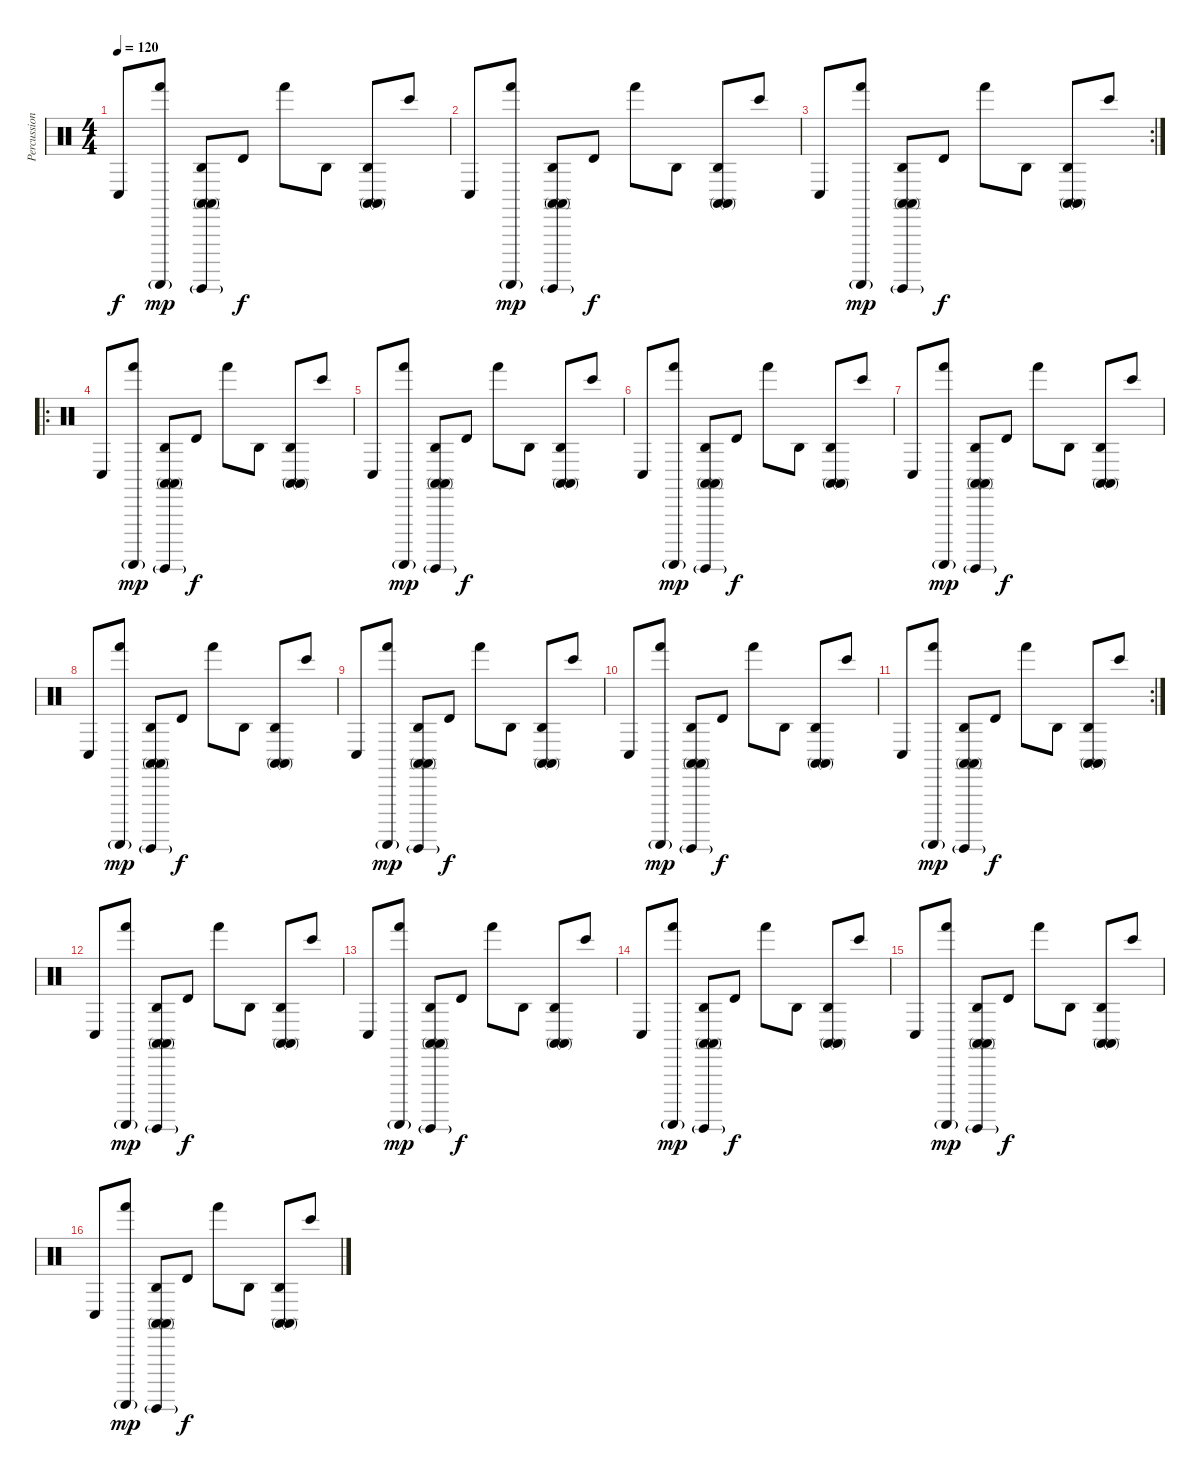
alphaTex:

\track ("Percussions" "Percussion") {instrument percussion}
\staff {score}
\articulation defaults
\ts (4 4)
\tempo 120
\clef neutral
\ks c "Conga low (hit)".8{dy f}
("Hand (hit)" "Guiro (scrap-return)"{g}).8{dy mp} ("Conga high (mute)" "Agogo high (hit)" "Conga high (mute)" "Guiro (hit)"{g}).8 "Timbale high (hit)".8{dy f} "Hand (hit)".8 "Agogo high (hit)".8 ("Agogo high (hit)" "Conga high (mute)" "Conga high (mute)").8 "Bongo High (hit)".8 |
"Conga low (hit)".8 ("Hand (hit)" "Guiro (scrap-return)"{g}).8{dy mp} ("Conga high (mute)" "Agogo high (hit)" "Conga high (mute)" "Guiro (hit)"{g}).8 "Timbale high (hit)".8{dy f} "Hand (hit)".8 "Agogo high (hit)".8 ("Agogo high (hit)" "Conga high (mute)" "Conga high (mute)").8 "Bongo High (hit)".8 |
\rc 2 "Conga low (hit)".8
("Hand (hit)" "Guiro (scrap-return)"{g}).8{dy mp} ("Conga high (mute)" "Agogo high (hit)" "Conga high (mute)" "Guiro (hit)"{g}).8 "Timbale high (hit)".8{dy f} "Hand (hit)".8 "Agogo high (hit)".8 ("Agogo high (hit)" "Conga high (mute)" "Conga high (mute)").8 "Bongo High (hit)".8 |
\ro "Conga low (hit)".8
("Hand (hit)" "Guiro (scrap-return)"{g}).8{dy mp} ("Conga high (mute)" "Agogo high (hit)" "Conga high (mute)" "Guiro (hit)"{g}).8 "Timbale high (hit)".8{dy f} "Hand (hit)".8 "Agogo high (hit)".8 ("Agogo high (hit)" "Conga high (mute)" "Conga high (mute)").8 "Bongo High (hit)".8 |
"Conga low (hit)".8 ("Hand (hit)" "Guiro (scrap-return)"{g}).8{dy mp} ("Conga high (mute)" "Agogo high (hit)" "Conga high (mute)" "Guiro (hit)"{g}).8 "Timbale high (hit)".8{dy f} "Hand (hit)".8 "Agogo high (hit)".8 ("Agogo high (hit)" "Conga high (mute)" "Conga high (mute)").8 "Bongo High (hit)".8 |
"Conga low (hit)".8 ("Hand (hit)" "Guiro (scrap-return)"{g}).8{dy mp} ("Conga high (mute)" "Agogo high (hit)" "Conga high (mute)" "Guiro (hit)"{g}).8 "Timbale high (hit)".8{dy f} "Hand (hit)".8 "Agogo high (hit)".8 ("Agogo high (hit)" "Conga high (mute)" "Conga high (mute)").8 "Bongo High (hit)".8 |
"Conga low (hit)".8 ("Hand (hit)" "Guiro (scrap-return)"{g}).8{dy mp} ("Conga high (mute)" "Agogo high (hit)" "Conga high (mute)" "Guiro (hit)"{g}).8 "Timbale high (hit)".8{dy f} "Hand (hit)".8 "Agogo high (hit)".8 ("Agogo high (hit)" "Conga high (mute)" "Conga high (mute)").8 "Bongo High (hit)".8 |
"Conga low (hit)".8 ("Hand (hit)" "Guiro (scrap-return)"{g}).8{dy mp} ("Conga high (mute)" "Agogo high (hit)" "Conga high (mute)" "Guiro (hit)"{g}).8 "Timbale high (hit)".8{dy f} "Hand (hit)".8 "Agogo high (hit)".8 ("Agogo high (hit)" "Conga high (mute)" "Conga high (mute)").8 "Bongo High (hit)".8 |
"Conga low (hit)".8 ("Hand (hit)" "Guiro (scrap-return)"{g}).8{dy mp} ("Conga high (mute)" "Agogo high (hit)" "Conga high (mute)" "Guiro (hit)"{g}).8 "Timbale high (hit)".8{dy f} "Hand (hit)".8 "Agogo high (hit)".8 ("Agogo high (hit)" "Conga high (mute)" "Conga high (mute)").8 "Bongo High (hit)".8 |
"Conga low (hit)".8 ("Hand (hit)" "Guiro (scrap-return)"{g}).8{dy mp} ("Conga high (mute)" "Agogo high (hit)" "Conga high (mute)" "Guiro (hit)"{g}).8 "Timbale high (hit)".8{dy f} "Hand (hit)".8 "Agogo high (hit)".8 ("Agogo high (hit)" "Conga high (mute)" "Conga high (mute)").8 "Bongo High (hit)".8 |
\rc 2 "Conga low (hit)".8
("Hand (hit)" "Guiro (scrap-return)"{g}).8{dy mp} ("Conga high (mute)" "Agogo high (hit)" "Conga high (mute)" "Guiro (hit)"{g}).8 "Timbale high (hit)".8{dy f} "Hand (hit)".8 "Agogo high (hit)".8 ("Agogo high (hit)" "Conga high (mute)" "Conga high (mute)").8 "Bongo High (hit)".8 |
"Conga low (hit)".8 ("Hand (hit)" "Guiro (scrap-return)"{g}).8{dy mp} ("Conga high (mute)" "Agogo high (hit)" "Conga high (mute)" "Guiro (hit)"{g}).8 "Timbale high (hit)".8{dy f} "Hand (hit)".8 "Agogo high (hit)".8 ("Agogo high (hit)" "Conga high (mute)" "Conga high (mute)").8 "Bongo High (hit)".8 |
"Conga low (hit)".8 ("Hand (hit)" "Guiro (scrap-return)"{g}).8{dy mp} ("Conga high (mute)" "Agogo high (hit)" "Conga high (mute)" "Guiro (hit)"{g}).8 "Timbale high (hit)".8{dy f} "Hand (hit)".8 "Agogo high (hit)".8 ("Agogo high (hit)" "Conga high (mute)" "Conga high (mute)").8 "Bongo High (hit)".8 |
"Conga low (hit)".8 ("Hand (hit)" "Guiro (scrap-return)"{g}).8{dy mp} ("Conga high (mute)" "Agogo high (hit)" "Conga high (mute)" "Guiro (hit)"{g}).8 "Timbale high (hit)".8{dy f} "Hand (hit)".8 "Agogo high (hit)".8 ("Agogo high (hit)" "Conga high (mute)" "Conga high (mute)").8 "Bongo High (hit)".8 |
"Conga low (hit)".8 ("Hand (hit)" "Guiro (scrap-return)"{g}).8{dy mp} ("Conga high (mute)" "Agogo high (hit)" "Conga high (mute)" "Guiro (hit)"{g}).8 "Timbale high (hit)".8{dy f} "Hand (hit)".8 "Agogo high (hit)".8 ("Agogo high (hit)" "Conga high (mute)" "Conga high (mute)").8 "Bongo High (hit)".8 |
"Conga low (hit)".8 ("Hand (hit)" "Guiro (scrap-return)"{g}).8{dy mp} ("Conga high (mute)" "Agogo high (hit)" "Conga high (mute)" "Guiro (hit)"{g}).8 "Timbale high (hit)".8{dy f} "Hand (hit)".8 "Agogo high (hit)".8 ("Agogo high (hit)" "Conga high (mute)" "Conga high (mute)").8 "Bongo High (hit)".8
